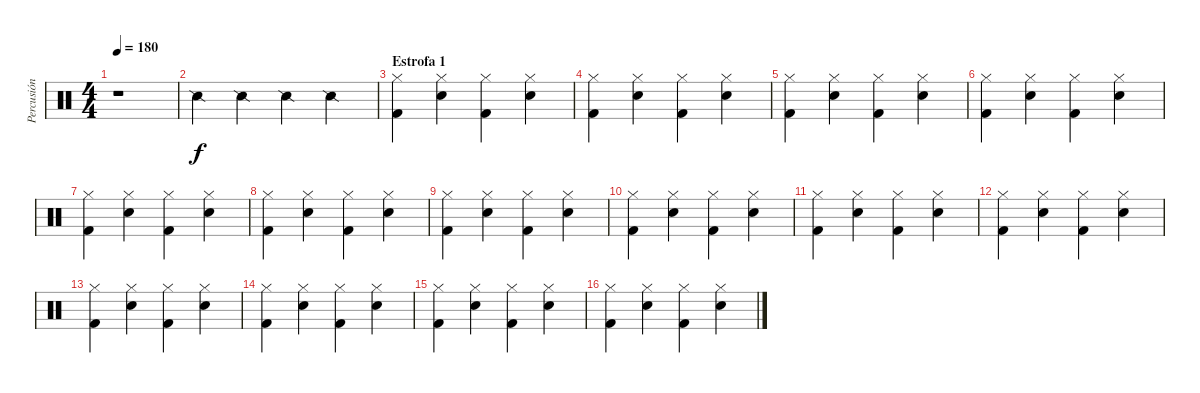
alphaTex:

\track ("Percusión" "Percusión") {instrument percussion}
\staff {score}
\articulation defaults
\ts (4 4)
\tempo 180
\clef neutral
\ks c
r.1{dy f} |
"Snare (side stick) 2".4 "Snare (side stick) 2".4 "Snare (side stick) 2".4 "Snare (side stick) 2".4 |
\section ("" "Estrofa 1")
("Hi-Hat (closed)" "Kick (hit) 2").4 ("Hi-Hat (closed)" "Electric Snare (hit)").4 ("Hi-Hat (closed)" "Kick (hit) 2").4 ("Hi-Hat (closed)" "Electric Snare (hit)").4 |
("Hi-Hat (closed)" "Kick (hit) 2").4 ("Hi-Hat (closed)" "Electric Snare (hit)").4 ("Hi-Hat (closed)" "Kick (hit) 2").4 ("Hi-Hat (closed)" "Electric Snare (hit)").4 |
("Hi-Hat (closed)" "Kick (hit) 2").4 ("Hi-Hat (closed)" "Electric Snare (hit)").4 ("Hi-Hat (closed)" "Kick (hit) 2").4 ("Hi-Hat (closed)" "Electric Snare (hit)").4 |
("Hi-Hat (closed)" "Kick (hit) 2").4 ("Hi-Hat (closed)" "Electric Snare (hit)").4 ("Hi-Hat (closed)" "Kick (hit) 2").4 ("Hi-Hat (closed)" "Electric Snare (hit)").4 |
("Hi-Hat (closed)" "Kick (hit) 2").4 ("Hi-Hat (closed)" "Electric Snare (hit)").4 ("Hi-Hat (closed)" "Kick (hit) 2").4 ("Hi-Hat (closed)" "Electric Snare (hit)").4 |
("Hi-Hat (closed)" "Kick (hit) 2").4 ("Hi-Hat (closed)" "Electric Snare (hit)").4 ("Hi-Hat (closed)" "Kick (hit) 2").4 ("Hi-Hat (closed)" "Electric Snare (hit)").4 |
("Hi-Hat (closed)" "Kick (hit) 2").4 ("Hi-Hat (closed)" "Electric Snare (hit)").4 ("Hi-Hat (closed)" "Kick (hit) 2").4 ("Hi-Hat (closed)" "Electric Snare (hit)").4 |
("Hi-Hat (closed)" "Kick (hit) 2").4 ("Hi-Hat (closed)" "Electric Snare (hit)").4 ("Hi-Hat (closed)" "Kick (hit) 2").4 ("Hi-Hat (closed)" "Electric Snare (hit)").4 |
("Hi-Hat (closed)" "Kick (hit) 2").4 ("Hi-Hat (closed)" "Electric Snare (hit)").4 ("Hi-Hat (closed)" "Kick (hit) 2").4 ("Hi-Hat (closed)" "Electric Snare (hit)").4 |
("Hi-Hat (closed)" "Kick (hit) 2").4 ("Hi-Hat (closed)" "Electric Snare (hit)").4 ("Hi-Hat (closed)" "Kick (hit) 2").4 ("Hi-Hat (closed)" "Electric Snare (hit)").4 |
("Hi-Hat (closed)" "Kick (hit) 2").4 ("Hi-Hat (closed)" "Electric Snare (hit)").4 ("Hi-Hat (closed)" "Kick (hit) 2").4 ("Hi-Hat (closed)" "Electric Snare (hit)").4 |
("Hi-Hat (closed)" "Kick (hit) 2").4 ("Hi-Hat (closed)" "Electric Snare (hit)").4 ("Hi-Hat (closed)" "Kick (hit) 2").4 ("Hi-Hat (closed)" "Electric Snare (hit)").4 |
("Hi-Hat (closed)" "Kick (hit) 2").4 ("Hi-Hat (closed)" "Electric Snare (hit)").4 ("Hi-Hat (closed)" "Kick (hit) 2").4 ("Hi-Hat (closed)" "Electric Snare (hit)").4 |
("Hi-Hat (closed)" "Kick (hit) 2").4 ("Hi-Hat (closed)" "Electric Snare (hit)").4 ("Hi-Hat (closed)" "Kick (hit) 2").4 ("Hi-Hat (closed)" "Electric Snare (hit)").4
